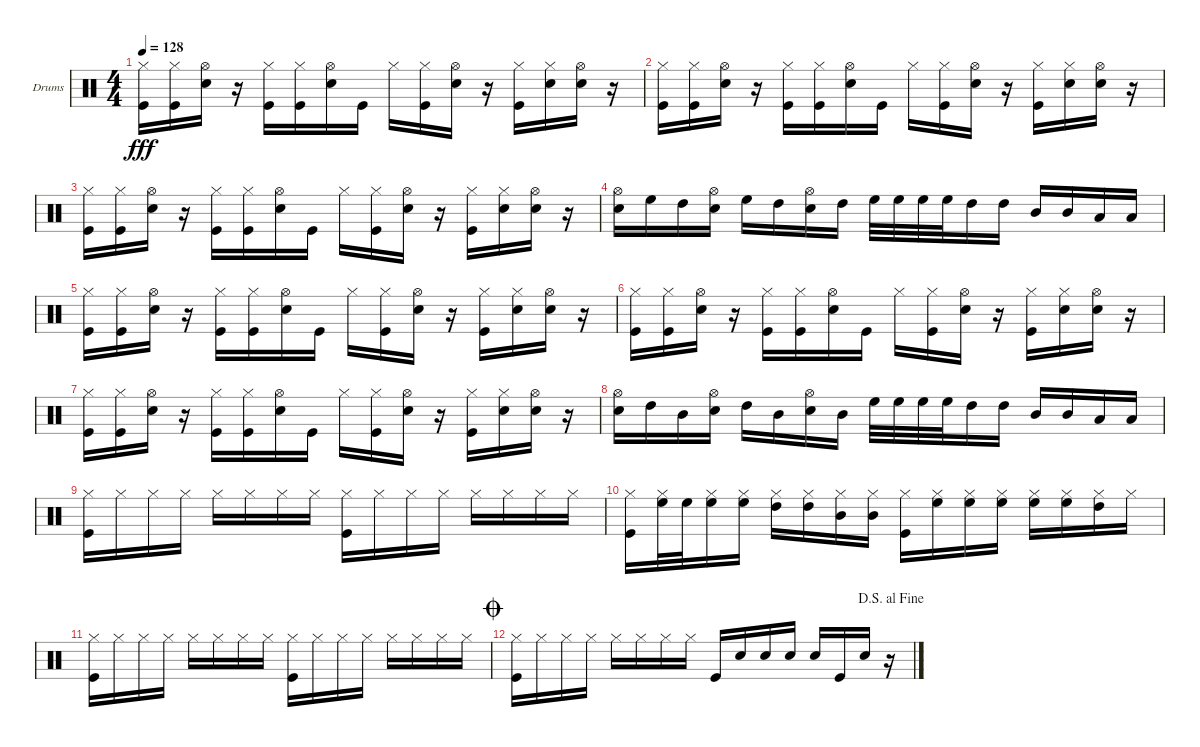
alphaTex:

\bracketExtendMode groupsimilarinstruments
\firstSystemTrackNameOrientation horizontal
\otherSystemsTrackNameOrientation horizontal
\chordDiagramsInScore
\track ("Drumkit" "Drums") {instrument percussion}
\staff {score}
\articulation defaults
\ts (4 4)
\tempo 128
\clef neutral
\ks c
("Hi-Hat (closed)" "Kick (hit)").16{dy fff} ("Hi-Hat (closed)" "Kick (hit)").16 ("Hi-Hat (open)" "Snare (hit) 2").16 r.16 ("Hi-Hat (closed)" "Kick (hit)").16 ("Hi-Hat (closed)" "Kick (hit)").16 ("Hi-Hat (open)" "Snare (hit) 2").16 "Kick (hit)".16 "Hi-Hat (closed)".16 ("Hi-Hat (closed)" "Kick (hit)").16 ("Hi-Hat (open)" "Snare (hit) 2").16 r.16 ("Hi-Hat (closed)" "Kick (hit)").16 ("Hi-Hat (closed)" "Snare (hit) 2").16 ("Hi-Hat (open)" "Snare (hit) 2").16 r.16 |
("Hi-Hat (closed)" "Kick (hit)").16 ("Hi-Hat (closed)" "Kick (hit)").16 ("Hi-Hat (open)" "Snare (hit) 2").16 r.16 ("Hi-Hat (closed)" "Kick (hit)").16 ("Hi-Hat (closed)" "Kick (hit)").16 ("Hi-Hat (open)" "Snare (hit) 2").16 "Kick (hit)".16 "Hi-Hat (closed)".16 ("Hi-Hat (closed)" "Kick (hit)").16 ("Hi-Hat (open)" "Snare (hit) 2").16 r.16 ("Hi-Hat (closed)" "Kick (hit)").16 ("Hi-Hat (closed)" "Snare (hit) 2").16 ("Hi-Hat (open)" "Snare (hit) 2").16 r.16 |
("Hi-Hat (closed)" "Kick (hit)").16 ("Hi-Hat (closed)" "Kick (hit)").16 ("Hi-Hat (open)" "Snare (hit) 2").16 r.16 ("Hi-Hat (closed)" "Kick (hit)").16 ("Hi-Hat (closed)" "Kick (hit)").16 ("Hi-Hat (open)" "Snare (hit) 2").16 "Kick (hit)".16 "Hi-Hat (closed)".16 ("Hi-Hat (closed)" "Kick (hit)").16 ("Hi-Hat (open)" "Snare (hit) 2").16 r.16 ("Hi-Hat (closed)" "Kick (hit)").16 ("Hi-Hat (closed)" "Snare (hit) 2").16 ("Hi-Hat (open)" "Snare (hit) 2").16 r.16 |
("Snare (hit) 2" "Hi-Hat (open)").16 "High Floor Tom (hit)".16 "High Tom (hit)".16 ("Snare (hit) 2" "Hi-Hat (open)").16 "High Floor Tom (hit)".16 "High Tom (hit)".16 ("Snare (hit) 2" "Hi-Hat (open)").16 "High Tom (hit)".16 "High Floor Tom (hit)".32 "High Floor Tom (hit)".32 "High Floor Tom (hit)".32 "High Floor Tom (hit)".32 "High Tom (hit)".16 "High Tom (hit)".16 "Mid Tom (hit)".16 "Mid Tom (hit)".16 "Low Tom (hit)".16 "Low Tom (hit)".16 |
("Hi-Hat (closed)" "Kick (hit)").16 ("Hi-Hat (closed)" "Kick (hit)").16 ("Hi-Hat (open)" "Snare (hit) 2").16 r.16 ("Hi-Hat (closed)" "Kick (hit)").16 ("Hi-Hat (closed)" "Kick (hit)").16 ("Hi-Hat (open)" "Snare (hit) 2").16 "Kick (hit)".16 "Hi-Hat (closed)".16 ("Hi-Hat (closed)" "Kick (hit)").16 ("Hi-Hat (open)" "Snare (hit) 2").16 r.16 ("Hi-Hat (closed)" "Kick (hit)").16 ("Hi-Hat (closed)" "Snare (hit) 2").16 ("Hi-Hat (open)" "Snare (hit) 2").16 r.16 |
("Hi-Hat (closed)" "Kick (hit)").16 ("Hi-Hat (closed)" "Kick (hit)").16 ("Hi-Hat (open)" "Snare (hit) 2").16 r.16 ("Hi-Hat (closed)" "Kick (hit)").16 ("Hi-Hat (closed)" "Kick (hit)").16 ("Hi-Hat (open)" "Snare (hit) 2").16 "Kick (hit)".16 "Hi-Hat (closed)".16 ("Hi-Hat (closed)" "Kick (hit)").16 ("Hi-Hat (open)" "Snare (hit) 2").16 r.16 ("Hi-Hat (closed)" "Kick (hit)").16 ("Hi-Hat (closed)" "Snare (hit) 2").16 ("Hi-Hat (open)" "Snare (hit) 2").16 r.16 |
("Hi-Hat (closed)" "Kick (hit)").16 ("Hi-Hat (closed)" "Kick (hit)").16 ("Hi-Hat (open)" "Snare (hit) 2").16 r.16 ("Hi-Hat (closed)" "Kick (hit)").16 ("Hi-Hat (closed)" "Kick (hit)").16 ("Hi-Hat (open)" "Snare (hit) 2").16 "Kick (hit)".16 "Hi-Hat (closed)".16 ("Hi-Hat (closed)" "Kick (hit)").16 ("Hi-Hat (open)" "Snare (hit) 2").16 r.16 ("Hi-Hat (closed)" "Kick (hit)").16 ("Hi-Hat (closed)" "Snare (hit) 2").16 ("Hi-Hat (open)" "Snare (hit) 2").16 r.16 |
("Snare (hit) 2" "Hi-Hat (open)").16 "High Tom (hit)".16 "Mid Tom (hit)".16 ("Snare (hit) 2" "Hi-Hat (open)").16 "High Tom (hit)".16 "Mid Tom (hit)".16 ("Snare (hit) 2" "Hi-Hat (open)").16 "Mid Tom (hit)".16 "High Floor Tom (hit)".32 "High Floor Tom (hit)".32 "High Floor Tom (hit)".32 "High Floor Tom (hit)".32 "High Tom (hit)".16 "High Tom (hit)".16 "Mid Tom (hit)".16 "Mid Tom (hit)".16 "Low Tom (hit)".16 "Low Tom (hit)".16 |
("Kick (hit)" "Hi-Hat (closed)").16 "Hi-Hat (closed)".16 "Hi-Hat (closed)".16 "Hi-Hat (closed)".16 "Hi-Hat (closed)".16 "Hi-Hat (closed)".16 "Hi-Hat (closed)".16 "Hi-Hat (closed)".16 ("Kick (hit)" "Hi-Hat (closed)").16 "Hi-Hat (closed)".16 "Hi-Hat (closed)".16 "Hi-Hat (closed)".16 "Hi-Hat (closed)".16 "Hi-Hat (closed)".16 "Hi-Hat (closed)".16 "Hi-Hat (closed)".16 |
("Kick (hit)" "Hi-Hat (closed)").16 ("Hi-Hat (closed)" "High Floor Tom (hit)").32 "High Floor Tom (hit)".32 ("Hi-Hat (closed)" "High Floor Tom (hit)").16 ("Hi-Hat (closed)" "High Floor Tom (hit)").16 ("Hi-Hat (closed)" "High Tom (hit)").16 ("Hi-Hat (closed)" "High Tom (hit)").16 ("Hi-Hat (closed)" "Mid Tom (hit)").16 ("Hi-Hat (closed)" "Mid Tom (hit)").16 ("Kick (hit)" "Hi-Hat (closed)").16 ("Hi-Hat (closed)" "High Floor Tom (hit)").16 ("Hi-Hat (closed)" "High Floor Tom (hit)").16 ("Hi-Hat (closed)" "High Floor Tom (hit)").16 ("Hi-Hat (closed)" "High Floor Tom (hit)").16 ("Hi-Hat (closed)" "High Floor Tom (hit)").16 ("Hi-Hat (closed)" "High Tom (hit)").16 "Hi-Hat (closed)".16 |
("Kick (hit)" "Hi-Hat (closed)").16 "Hi-Hat (closed)".16 "Hi-Hat (closed)".16 "Hi-Hat (closed)".16 "Hi-Hat (closed)".16 "Hi-Hat (closed)".16 "Hi-Hat (closed)".16 "Hi-Hat (closed)".16 ("Kick (hit)" "Hi-Hat (closed)").16 "Hi-Hat (closed)".16 "Hi-Hat (closed)".16 "Hi-Hat (closed)".16 "Hi-Hat (closed)".16 "Hi-Hat (closed)".16 "Hi-Hat (closed)".16 "Hi-Hat (closed)".16 |
\jump coda
\jump dalsegnoalfine
("Kick (hit)" "Hi-Hat (closed)").16 "Hi-Hat (closed)".16 "Hi-Hat (closed)".16 "Hi-Hat (closed)".16 "Hi-Hat (closed)".16 "Hi-Hat (closed)".16 "Hi-Hat (closed)".16 "Hi-Hat (closed)".16 "Kick (hit)".16 "Snare (hit) 2".16 "Snare (hit) 2".16 "Snare (hit) 2".16 "Snare (hit) 2".16 "Kick (hit)".16 "Snare (hit) 2".16 r.16
